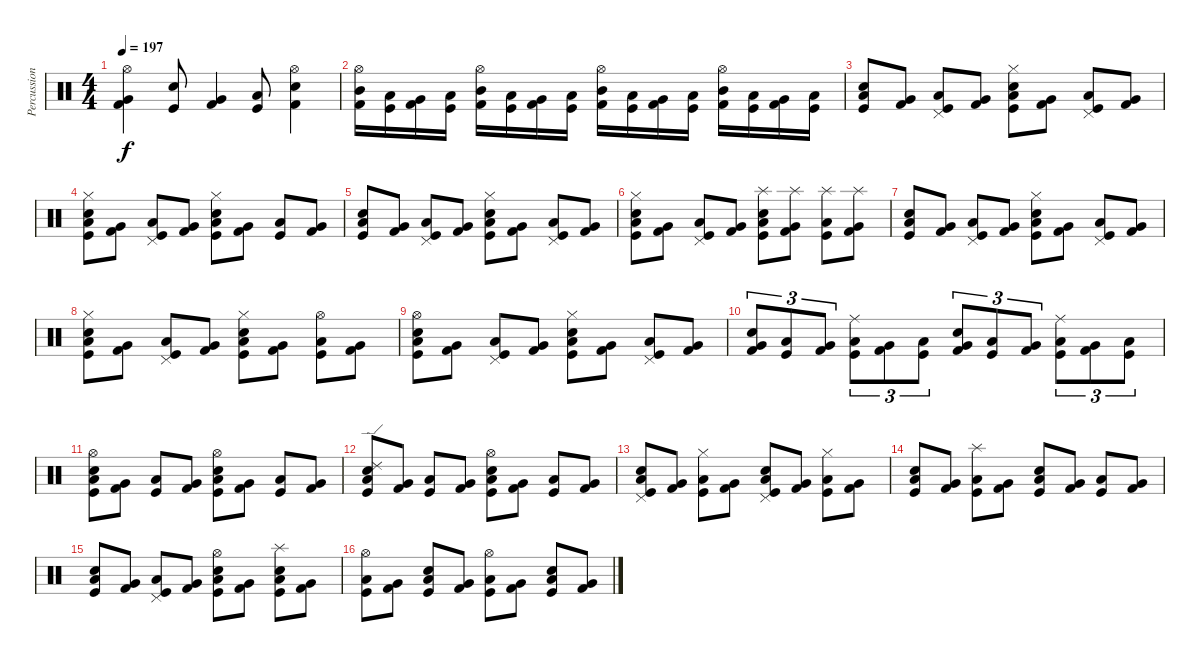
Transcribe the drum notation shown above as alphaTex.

\track ("Percussions" "Percussion") {instrument percussion}
\staff {score}
\articulation defaults
\ts (4 4)
\tempo 197
\clef neutral
\ks c
("Hi-Hat (open)" "Very Low Tom (hit)" "Kick (hit) 2").4{dy f} ("Kick (hit)" "Electric Snare (hit)").8 ("Very Low Tom (hit)" "Kick (hit) 2").4 ("Low Tom (hit)" "Kick (hit)").8 ("Hi-Hat (open)" "Kick (hit) 2" "Electric Snare (hit)").4 |
("Hi-Hat (open)" "Mid Tom (hit)" "Kick (hit) 2").16 ("Low Tom (hit)" "Kick (hit)").16 ("Very Low Tom (hit)" "Kick (hit) 2").16 ("Low Floor Tom (hit)" "Kick (hit)").16 ("Hi-Hat (open)" "Mid Tom (hit)" "Kick (hit) 2").16 ("Low Tom (hit)" "Kick (hit)").16 ("Very Low Tom (hit)" "Kick (hit) 2").16 ("Low Floor Tom (hit)" "Kick (hit)").16 ("Hi-Hat (open)" "Mid Tom (hit)" "Kick (hit) 2").16 ("Low Tom (hit)" "Kick (hit)").16 ("Very Low Tom (hit)" "Kick (hit) 2").16 ("Low Floor Tom (hit)" "Kick (hit)").16 ("Hi-Hat (open)" "Mid Tom (hit)" "Kick (hit) 2").16 ("Low Tom (hit)" "Kick (hit)").16 ("Very Low Tom (hit)" "Kick (hit) 2").16 ("Low Floor Tom (hit)" "Kick (hit)").16 |
("Electric Snare (hit)" "Kick (hit)" "Low Tom (hit)").8 ("Kick (hit) 2" "Very Low Tom (hit)").8 ("Pedal Hi-Hat (hit)" "Kick (hit)" "Low Tom (hit)").8 ("Kick (hit) 2" "Very Low Tom (hit)").8 ("Hi-Hat (closed)" "Electric Snare (hit)" "Kick (hit)" "Low Tom (hit)").8 ("Kick (hit) 2" "Very Low Tom (hit)").8 ("Pedal Hi-Hat (hit)" "Kick (hit)" "Low Tom (hit)").8 ("Kick (hit) 2" "Very Low Tom (hit)").8 |
("Hi-Hat (closed)" "Electric Snare (hit)" "Kick (hit)" "Low Tom (hit)").8 ("Kick (hit) 2" "Very Low Tom (hit)").8 ("Pedal Hi-Hat (hit)" "Kick (hit)" "Low Tom (hit)").8 ("Kick (hit) 2" "Very Low Tom (hit)").8 ("Hi-Hat (closed)" "Electric Snare (hit)" "Kick (hit)" "Low Tom (hit)").8 ("Kick (hit) 2" "Very Low Tom (hit)").8 ("Kick (hit)" "Low Tom (hit)").8 ("Kick (hit) 2" "Very Low Tom (hit)").8 |
("Electric Snare (hit)" "Kick (hit)" "Low Tom (hit)").8 ("Kick (hit) 2" "Very Low Tom (hit)").8 ("Pedal Hi-Hat (hit)" "Kick (hit)" "Low Tom (hit)").8 ("Kick (hit) 2" "Very Low Tom (hit)").8 ("Hi-Hat (closed)" "Electric Snare (hit)" "Kick (hit)" "Low Tom (hit)").8 ("Kick (hit) 2" "Very Low Tom (hit)").8 ("Pedal Hi-Hat (hit)" "Kick (hit)" "Low Tom (hit)").8 ("Kick (hit) 2" "Very Low Tom (hit)").8 |
("Hi-Hat (closed)" "Electric Snare (hit)" "Kick (hit)" "Low Tom (hit)").8 ("Kick (hit) 2" "Very Low Tom (hit)").8 ("Pedal Hi-Hat (hit)" "Kick (hit)" "Low Tom (hit)").8 ("Kick (hit) 2" "Very Low Tom (hit)").8 ("Splash (hit)" "Electric Snare (hit)" "Kick (hit)" "Low Tom (hit)").8 ("Splash (hit)" "Kick (hit) 2" "Very Low Tom (hit)").8 ("Splash (hit)" "Kick (hit)" "Low Tom (hit)").8 ("Splash (hit)" "Kick (hit) 2" "Very Low Tom (hit)").8 |
("Electric Snare (hit)" "Kick (hit)" "Low Tom (hit)").8 ("Kick (hit) 2" "Very Low Tom (hit)").8 ("Pedal Hi-Hat (hit)" "Kick (hit)" "Low Tom (hit)").8 ("Kick (hit) 2" "Very Low Tom (hit)").8 ("Hi-Hat (closed)" "Electric Snare (hit)" "Kick (hit)" "Low Tom (hit)").8 ("Kick (hit) 2" "Very Low Tom (hit)").8 ("Pedal Hi-Hat (hit)" "Kick (hit)" "Low Tom (hit)").8 ("Kick (hit) 2" "Very Low Tom (hit)").8 |
("Hi-Hat (closed)" "Electric Snare (hit)" "Kick (hit)" "Low Tom (hit)").8 ("Kick (hit) 2" "Very Low Tom (hit)").8 ("Pedal Hi-Hat (hit)" "Kick (hit)" "Low Tom (hit)").8 ("Kick (hit) 2" "Very Low Tom (hit)").8 ("Hi-Hat (closed)" "Electric Snare (hit)" "Kick (hit)" "Low Tom (hit)").8 ("Kick (hit) 2" "Very Low Tom (hit)").8 ("Hi-Hat (open)" "Kick (hit)" "Low Tom (hit)").8 ("Kick (hit) 2" "Very Low Tom (hit)").8 |
("Hi-Hat (open)" "Electric Snare (hit)" "Kick (hit)" "Low Tom (hit)").8 ("Kick (hit) 2" "Very Low Tom (hit)").8 ("Pedal Hi-Hat (hit)" "Kick (hit)" "Low Tom (hit)").8 ("Kick (hit) 2" "Very Low Tom (hit)").8 ("Hi-Hat (closed)" "Electric Snare (hit)" "Kick (hit)" "Low Tom (hit)").8 ("Kick (hit) 2" "Very Low Tom (hit)").8 ("Pedal Hi-Hat (hit)" "Kick (hit)" "Low Tom (hit)").8 ("Kick (hit) 2" "Very Low Tom (hit)").8 |
("Electric Snare (hit)" "Very Low Tom (hit)" "Kick (hit) 2").8{tu (3 2)} ("Low Tom (hit)" "Kick (hit)").8{tu (3 2)} ("Very Low Tom (hit)" "Kick (hit) 2").8{tu (3 2)} ("Ride (middle)" "Low Tom (hit)" "Kick (hit)").8{tu (3 2)} ("Very Low Tom (hit)" "Kick (hit) 2").8{tu (3 2)} ("Low Tom (hit)" "Kick (hit)").8{tu (3 2)} ("Electric Snare (hit)" "Very Low Tom (hit)" "Kick (hit) 2").8{tu (3 2)} ("Low Tom (hit)" "Kick (hit)").8{tu (3 2)} ("Very Low Tom (hit)" "Kick (hit) 2").8{tu (3 2)} ("Ride (middle)" "Low Tom (hit)" "Kick (hit)").8{tu (3 2)} ("Very Low Tom (hit)" "Kick (hit) 2").8{tu (3 2)} ("Low Tom (hit)" "Kick (hit)").8{tu (3 2)} |
("Hi-Hat (open)" "Electric Snare (hit)" "Kick (hit)" "Low Tom (hit)").8 ("Kick (hit) 2" "Very Low Tom (hit)").8 ("Kick (hit)" "Low Tom (hit)").8 ("Kick (hit) 2" "Very Low Tom (hit)").8 ("Hi-Hat (open)" "Electric Snare (hit)" "Kick (hit)" "Low Tom (hit)").8 ("Kick (hit) 2" "Very Low Tom (hit)").8 ("Kick (hit)" "Low Tom (hit)").8 ("Kick (hit) 2" "Very Low Tom (hit)").8 |
("Ride (edge) 2" "Electric Snare (hit)" "Kick (hit)" "Low Tom (hit)").8 ("Kick (hit) 2" "Very Low Tom (hit)").8 ("Kick (hit)" "Low Tom (hit)").8 ("Kick (hit) 2" "Very Low Tom (hit)").8 ("Hi-Hat (open)" "Electric Snare (hit)" "Kick (hit)" "Low Tom (hit)").8 ("Kick (hit) 2" "Very Low Tom (hit)").8 ("Kick (hit)" "Low Tom (hit)").8 ("Kick (hit) 2" "Very Low Tom (hit)").8 |
("Pedal Hi-Hat (hit)" "Electric Snare (hit)" "Kick (hit)" "Low Tom (hit)").8 ("Kick (hit) 2" "Very Low Tom (hit)").8 ("Hi-Hat (closed)" "Kick (hit)" "Low Tom (hit)").8 ("Kick (hit) 2" "Very Low Tom (hit)").8 ("Pedal Hi-Hat (hit)" "Electric Snare (hit)" "Kick (hit)" "Low Tom (hit)").8 ("Kick (hit) 2" "Very Low Tom (hit)").8 ("Hi-Hat (closed)" "Kick (hit)" "Low Tom (hit)").8 ("Kick (hit) 2" "Very Low Tom (hit)").8 |
("Electric Snare (hit)" "Kick (hit)" "Low Tom (hit)").8 ("Kick (hit) 2" "Very Low Tom (hit)").8 ("Splash (hit)" "Kick (hit)" "Low Tom (hit)").8 ("Kick (hit) 2" "Very Low Tom (hit)").8 ("Electric Snare (hit)" "Kick (hit)" "Low Tom (hit)").8 ("Kick (hit) 2" "Very Low Tom (hit)").8 ("Kick (hit)" "Low Tom (hit)").8 ("Kick (hit) 2" "Very Low Tom (hit)").8 |
("Electric Snare (hit)" "Kick (hit)" "Low Tom (hit)").8 ("Kick (hit) 2" "Very Low Tom (hit)").8 ("Pedal Hi-Hat (hit)" "Kick (hit)" "Low Tom (hit)").8 ("Kick (hit) 2" "Very Low Tom (hit)").8 ("Hi-Hat (open)" "Electric Snare (hit)" "Kick (hit)" "Low Tom (hit)").8 ("Kick (hit) 2" "Very Low Tom (hit)").8 ("Splash (hit)" "Electric Snare (hit)" "Kick (hit)" "Low Tom (hit)").8 ("Kick (hit) 2" "Very Low Tom (hit)").8 |
("Hi-Hat (open)" "Kick (hit)" "Low Tom (hit)").8 ("Kick (hit) 2" "Very Low Tom (hit)").8 ("Electric Snare (hit)" "Kick (hit)" "Low Tom (hit)").8 ("Kick (hit) 2" "Very Low Tom (hit)").8 ("Hi-Hat (open)" "Kick (hit)" "Low Tom (hit)").8 ("Kick (hit) 2" "Very Low Tom (hit)").8 ("Electric Snare (hit)" "Kick (hit)" "Low Tom (hit)").8 ("Kick (hit) 2" "Very Low Tom (hit)").8
